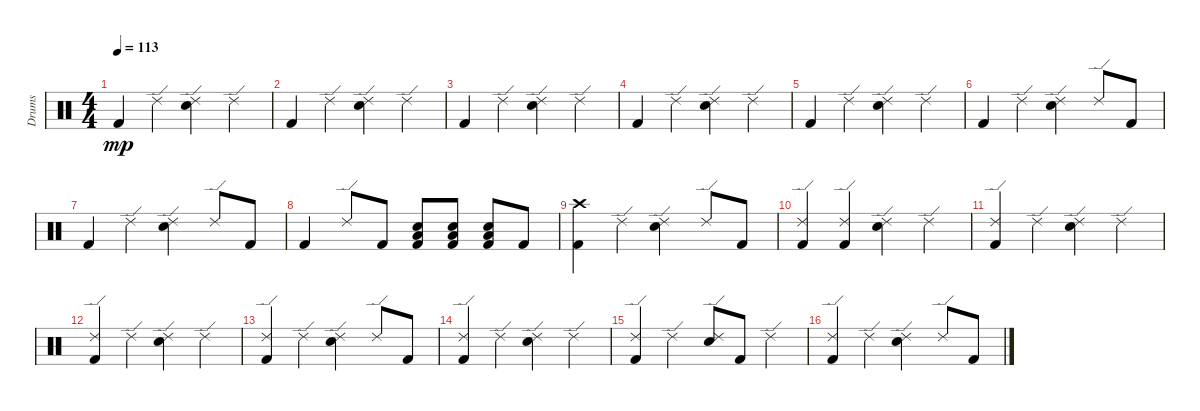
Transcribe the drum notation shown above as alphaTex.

\track ("Drums" "Drums") {instrument percussion}
\staff {score}
\articulation defaults
\ts (4 4)
\tempo 113
\clef neutral
\ks c "Kick (hit) 2".4{dy mp} "Ride (edge) 2".4
("Snare (hit) 2" "Ride (edge) 2").4 "Ride (edge) 2".4 |
"Kick (hit) 2".4 "Ride (edge) 2".4 ("Snare (hit) 2" "Ride (edge) 2").4 "Ride (edge) 2".4 |
"Kick (hit) 2".4 "Ride (edge) 2".4 ("Snare (hit) 2" "Ride (edge) 2").4 "Ride (edge) 2".4 |
"Kick (hit) 2".4 "Ride (edge) 2".4 ("Snare (hit) 2" "Ride (edge) 2").4 "Ride (edge) 2".4 |
"Kick (hit) 2".4 "Ride (edge) 2".4 ("Snare (hit) 2" "Ride (edge) 2").4 "Ride (edge) 2".4 |
"Kick (hit) 2".4 "Ride (edge) 2".4 ("Snare (hit) 2" "Ride (edge) 2").4 "Ride (edge) 2".8 "Kick (hit) 2".8 |
"Kick (hit) 2".4 "Ride (edge) 2".4 ("Snare (hit) 2" "Ride (edge) 2").4 "Ride (edge) 2".8 "Kick (hit) 2".8 |
"Kick (hit) 2".4 "Ride (edge) 2".8 "Kick (hit) 2".8 ("Kick (hit) 2" "Snare (hit) 2" "Low Floor Tom (hit)").8 ("Kick (hit) 2" "Snare (hit) 2" "Low Floor Tom (hit)").8 ("Kick (hit) 2" "Snare (hit) 2" "Low Floor Tom (hit)").8 "Kick (hit) 2".8 |
("Kick (hit) 2" "Crash high (hit)").4 "Ride (edge) 2".4 ("Snare (hit) 2" "Ride (edge) 2").4 "Ride (edge) 2".8 "Kick (hit) 2".8 |
("Kick (hit) 2" "Ride (edge) 2").4 ("Kick (hit) 2" "Ride (edge) 2").4 ("Snare (hit) 2" "Ride (edge) 2").4 "Ride (edge) 2".4 |
("Kick (hit) 2" "Ride (edge) 2").4 "Ride (edge) 2".4 ("Snare (hit) 2" "Ride (edge) 2").4 "Ride (edge) 2".4 |
("Kick (hit) 2" "Ride (edge) 2").4 "Ride (edge) 2".4 ("Snare (hit) 2" "Ride (edge) 2").4 "Ride (edge) 2".4 |
("Kick (hit) 2" "Ride (edge) 2").4 "Ride (edge) 2".4 ("Snare (hit) 2" "Ride (edge) 2").4 "Ride (edge) 2".8 "Kick (hit) 2".8 |
("Kick (hit) 2" "Ride (edge) 2").4 "Ride (edge) 2".4 ("Snare (hit) 2" "Ride (edge) 2").4 "Ride (edge) 2".4 |
("Kick (hit) 2" "Ride (edge) 2").4 "Ride (edge) 2".4 ("Snare (hit) 2" "Ride (edge) 2").8 "Kick (hit) 2".8 "Ride (edge) 2".4 |
("Kick (hit) 2" "Ride (edge) 2").4 "Ride (edge) 2".4 ("Snare (hit) 2" "Ride (edge) 2").4 "Ride (edge) 2".8 "Kick (hit) 2".8
